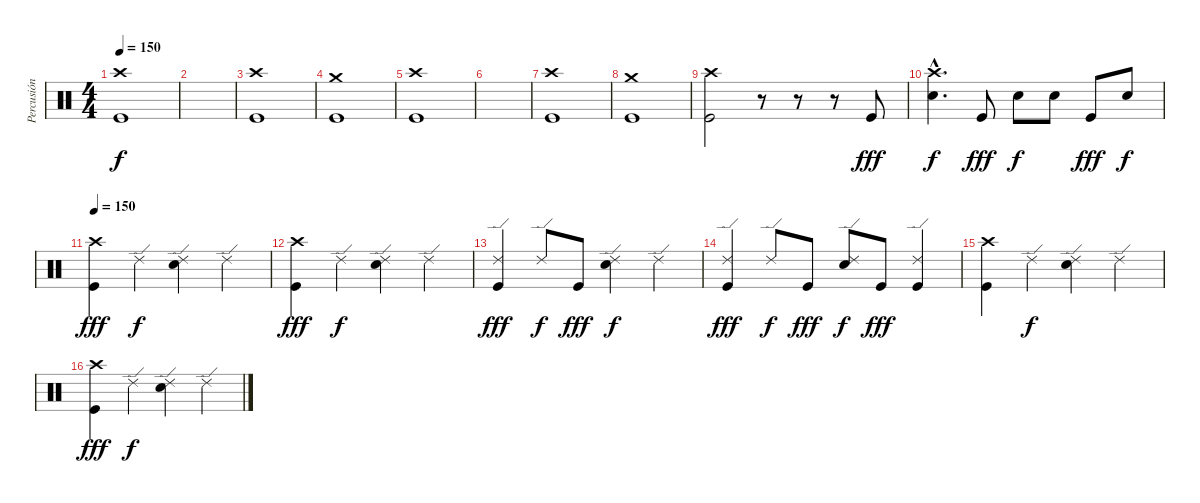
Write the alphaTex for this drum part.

\track ("Percusión" "Percusión") {instrument percussion}
\staff {score}
\articulation defaults
\ts (4 4)
\tempo 150
\clef neutral
\ks c
("Crash high (hit)" "Kick (hit)").1{dy f} |
|
("Crash high (hit)" "Kick (hit)").1 |
("Crash medium (hit)" "Kick (hit)").1 |
("Crash high (hit)" "Kick (hit)").1 |
|
("Crash high (hit)" "Kick (hit)").1 |
("Crash medium (hit)" "Kick (hit)").1 |
("Crash high (hit)" "Kick (hit)").2 r.8 r.8 r.8 "Kick (hit)".8{dy fff} |
("Crash high (hit)"{hac} "Electric Snare (hit)"{hac}).4{d dy f} "Kick (hit)".8{dy fff} "Electric Snare (hit)".8{dy f} "Electric Snare (hit)".8 "Kick (hit)".8{dy fff} "Electric Snare (hit)".8{dy f} |
\tempo 150
("Crash high (hit)" "Kick (hit)").4{dy fff} "Ride (edge) 2".4{dy f} ("Ride (edge) 2" "Electric Snare (hit)").4 "Ride (edge) 2".4 |
("Crash high (hit)" "Kick (hit)").4{dy fff} "Ride (edge) 2".4{dy f} ("Ride (edge) 2" "Electric Snare (hit)").4 "Ride (edge) 2".4 |
("Ride (edge) 2" "Kick (hit)").4{dy fff} "Ride (edge) 2".8{dy f} "Kick (hit)".8{dy fff} ("Ride (edge) 2" "Electric Snare (hit)").4{dy f} "Ride (edge) 2".4 |
("Ride (edge) 2" "Kick (hit)").4{dy fff} "Ride (edge) 2".8{dy f} "Kick (hit)".8{dy fff} ("Ride (edge) 2" "Electric Snare (hit)").8{dy f} "Kick (hit)".8{dy fff} ("Ride (edge) 2" "Kick (hit)").4 |
("Crash high (hit)" "Kick (hit)").4 "Ride (edge) 2".4{dy f} ("Ride (edge) 2" "Electric Snare (hit)").4 "Ride (edge) 2".4 |
("Crash high (hit)" "Kick (hit)").4{dy fff} "Ride (edge) 2".4{dy f} ("Ride (edge) 2" "Electric Snare (hit)").4 "Ride (edge) 2".4
